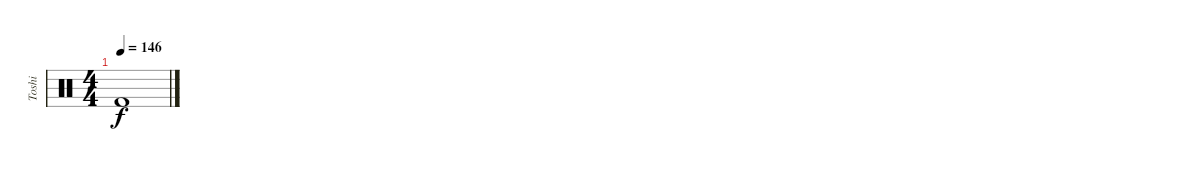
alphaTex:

\track ("Toshi" "Toshi") {instrument percussion}
\staff {score}
\articulation defaults
\ts (4 4)
\tempo 146
\clef neutral
\ks c "Kick (hit) 2".1{dy f}
